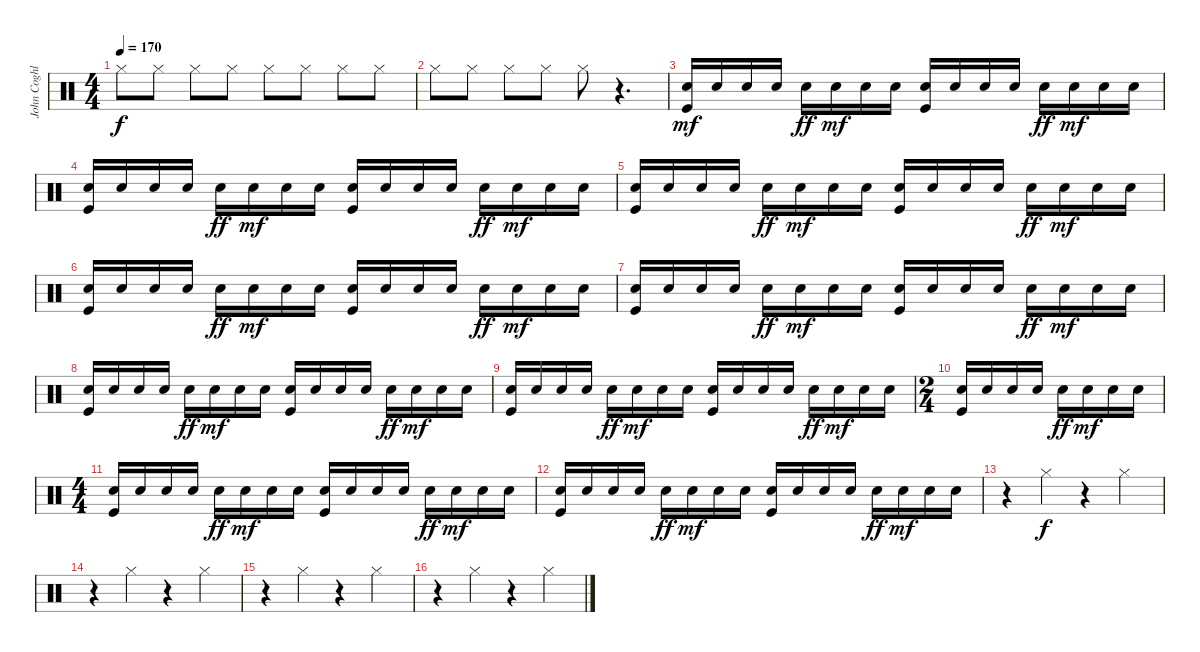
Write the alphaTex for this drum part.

\track ("John Coghlan" "John Coghl") {instrument percussion}
\staff {score}
\articulation defaults
\ts (4 4)
\tempo 170
\clef neutral
\ks c "Hi-Hat (closed)".8{dy f} "Hi-Hat (closed)".8 "Hi-Hat (closed)".8 "Hi-Hat (closed)".8 "Hi-Hat (closed)".8 "Hi-Hat (closed)".8 "Hi-Hat (closed)".8 "Hi-Hat (closed)".8
|
"Hi-Hat (closed)".8 "Hi-Hat (closed)".8 "Hi-Hat (closed)".8 "Hi-Hat (closed)".8 "Hi-Hat (closed)".8 r.4{d} |
("Electric Snare (hit)" "Kick (hit)").16{dy mf} "Electric Snare (hit)".16 "Electric Snare (hit)".16 "Electric Snare (hit)".16 "Electric Snare (hit)".16{dy ff} "Electric Snare (hit)".16{dy mf} "Electric Snare (hit)".16 "Electric Snare (hit)".16 ("Electric Snare (hit)" "Kick (hit)").16 "Electric Snare (hit)".16 "Electric Snare (hit)".16 "Electric Snare (hit)".16 "Electric Snare (hit)".16{dy ff} "Electric Snare (hit)".16{dy mf} "Electric Snare (hit)".16 "Electric Snare (hit)".16 |
("Electric Snare (hit)" "Kick (hit)").16 "Electric Snare (hit)".16 "Electric Snare (hit)".16 "Electric Snare (hit)".16 "Electric Snare (hit)".16{dy ff} "Electric Snare (hit)".16{dy mf} "Electric Snare (hit)".16 "Electric Snare (hit)".16 ("Electric Snare (hit)" "Kick (hit)").16 "Electric Snare (hit)".16 "Electric Snare (hit)".16 "Electric Snare (hit)".16 "Electric Snare (hit)".16{dy ff} "Electric Snare (hit)".16{dy mf} "Electric Snare (hit)".16 "Electric Snare (hit)".16 |
("Electric Snare (hit)" "Kick (hit)").16 "Electric Snare (hit)".16 "Electric Snare (hit)".16 "Electric Snare (hit)".16 "Electric Snare (hit)".16{dy ff} "Electric Snare (hit)".16{dy mf} "Electric Snare (hit)".16 "Electric Snare (hit)".16 ("Electric Snare (hit)" "Kick (hit)").16 "Electric Snare (hit)".16 "Electric Snare (hit)".16 "Electric Snare (hit)".16 "Electric Snare (hit)".16{dy ff} "Electric Snare (hit)".16{dy mf} "Electric Snare (hit)".16 "Electric Snare (hit)".16 |
("Electric Snare (hit)" "Kick (hit)").16 "Electric Snare (hit)".16 "Electric Snare (hit)".16 "Electric Snare (hit)".16 "Electric Snare (hit)".16{dy ff} "Electric Snare (hit)".16{dy mf} "Electric Snare (hit)".16 "Electric Snare (hit)".16 ("Electric Snare (hit)" "Kick (hit)").16 "Electric Snare (hit)".16 "Electric Snare (hit)".16 "Electric Snare (hit)".16 "Electric Snare (hit)".16{dy ff} "Electric Snare (hit)".16{dy mf} "Electric Snare (hit)".16 "Electric Snare (hit)".16 |
("Electric Snare (hit)" "Kick (hit)").16 "Electric Snare (hit)".16 "Electric Snare (hit)".16 "Electric Snare (hit)".16 "Electric Snare (hit)".16{dy ff} "Electric Snare (hit)".16{dy mf} "Electric Snare (hit)".16 "Electric Snare (hit)".16 ("Electric Snare (hit)" "Kick (hit)").16 "Electric Snare (hit)".16 "Electric Snare (hit)".16 "Electric Snare (hit)".16 "Electric Snare (hit)".16{dy ff} "Electric Snare (hit)".16{dy mf} "Electric Snare (hit)".16 "Electric Snare (hit)".16 |
("Electric Snare (hit)" "Kick (hit)").16 "Electric Snare (hit)".16 "Electric Snare (hit)".16 "Electric Snare (hit)".16 "Electric Snare (hit)".16{dy ff} "Electric Snare (hit)".16{dy mf} "Electric Snare (hit)".16 "Electric Snare (hit)".16 ("Electric Snare (hit)" "Kick (hit)").16 "Electric Snare (hit)".16 "Electric Snare (hit)".16 "Electric Snare (hit)".16 "Electric Snare (hit)".16{dy ff} "Electric Snare (hit)".16{dy mf} "Electric Snare (hit)".16 "Electric Snare (hit)".16 |
("Electric Snare (hit)" "Kick (hit)").16 "Electric Snare (hit)".16 "Electric Snare (hit)".16 "Electric Snare (hit)".16 "Electric Snare (hit)".16{dy ff} "Electric Snare (hit)".16{dy mf} "Electric Snare (hit)".16 "Electric Snare (hit)".16 ("Electric Snare (hit)" "Kick (hit)").16 "Electric Snare (hit)".16 "Electric Snare (hit)".16 "Electric Snare (hit)".16 "Electric Snare (hit)".16{dy ff} "Electric Snare (hit)".16{dy mf} "Electric Snare (hit)".16 "Electric Snare (hit)".16 |
\ts (2 4)
("Electric Snare (hit)" "Kick (hit)").16 "Electric Snare (hit)".16 "Electric Snare (hit)".16 "Electric Snare (hit)".16 "Electric Snare (hit)".16{dy ff} "Electric Snare (hit)".16{dy mf} "Electric Snare (hit)".16 "Electric Snare (hit)".16 |
\ts (4 4)
("Electric Snare (hit)" "Kick (hit)").16 "Electric Snare (hit)".16 "Electric Snare (hit)".16 "Electric Snare (hit)".16 "Electric Snare (hit)".16{dy ff} "Electric Snare (hit)".16{dy mf} "Electric Snare (hit)".16 "Electric Snare (hit)".16 ("Electric Snare (hit)" "Kick (hit)").16 "Electric Snare (hit)".16 "Electric Snare (hit)".16 "Electric Snare (hit)".16 "Electric Snare (hit)".16{dy ff} "Electric Snare (hit)".16{dy mf} "Electric Snare (hit)".16 "Electric Snare (hit)".16 |
("Electric Snare (hit)" "Kick (hit)").16 "Electric Snare (hit)".16 "Electric Snare (hit)".16 "Electric Snare (hit)".16 "Electric Snare (hit)".16{dy ff} "Electric Snare (hit)".16{dy mf} "Electric Snare (hit)".16 "Electric Snare (hit)".16 ("Electric Snare (hit)" "Kick (hit)").16 "Electric Snare (hit)".16 "Electric Snare (hit)".16 "Electric Snare (hit)".16 "Electric Snare (hit)".16{dy ff} "Electric Snare (hit)".16{dy mf} "Electric Snare (hit)".16 "Electric Snare (hit)".16 |
r.4 "Hi-Hat (closed)".4{dy f} r.4 "Hi-Hat (closed)".4 |
r.4 "Hi-Hat (closed)".4 r.4 "Hi-Hat (closed)".4 |
r.4 "Hi-Hat (closed)".4 r.4 "Hi-Hat (closed)".4 |
r.4 "Hi-Hat (closed)".4 r.4 "Hi-Hat (closed)".4
